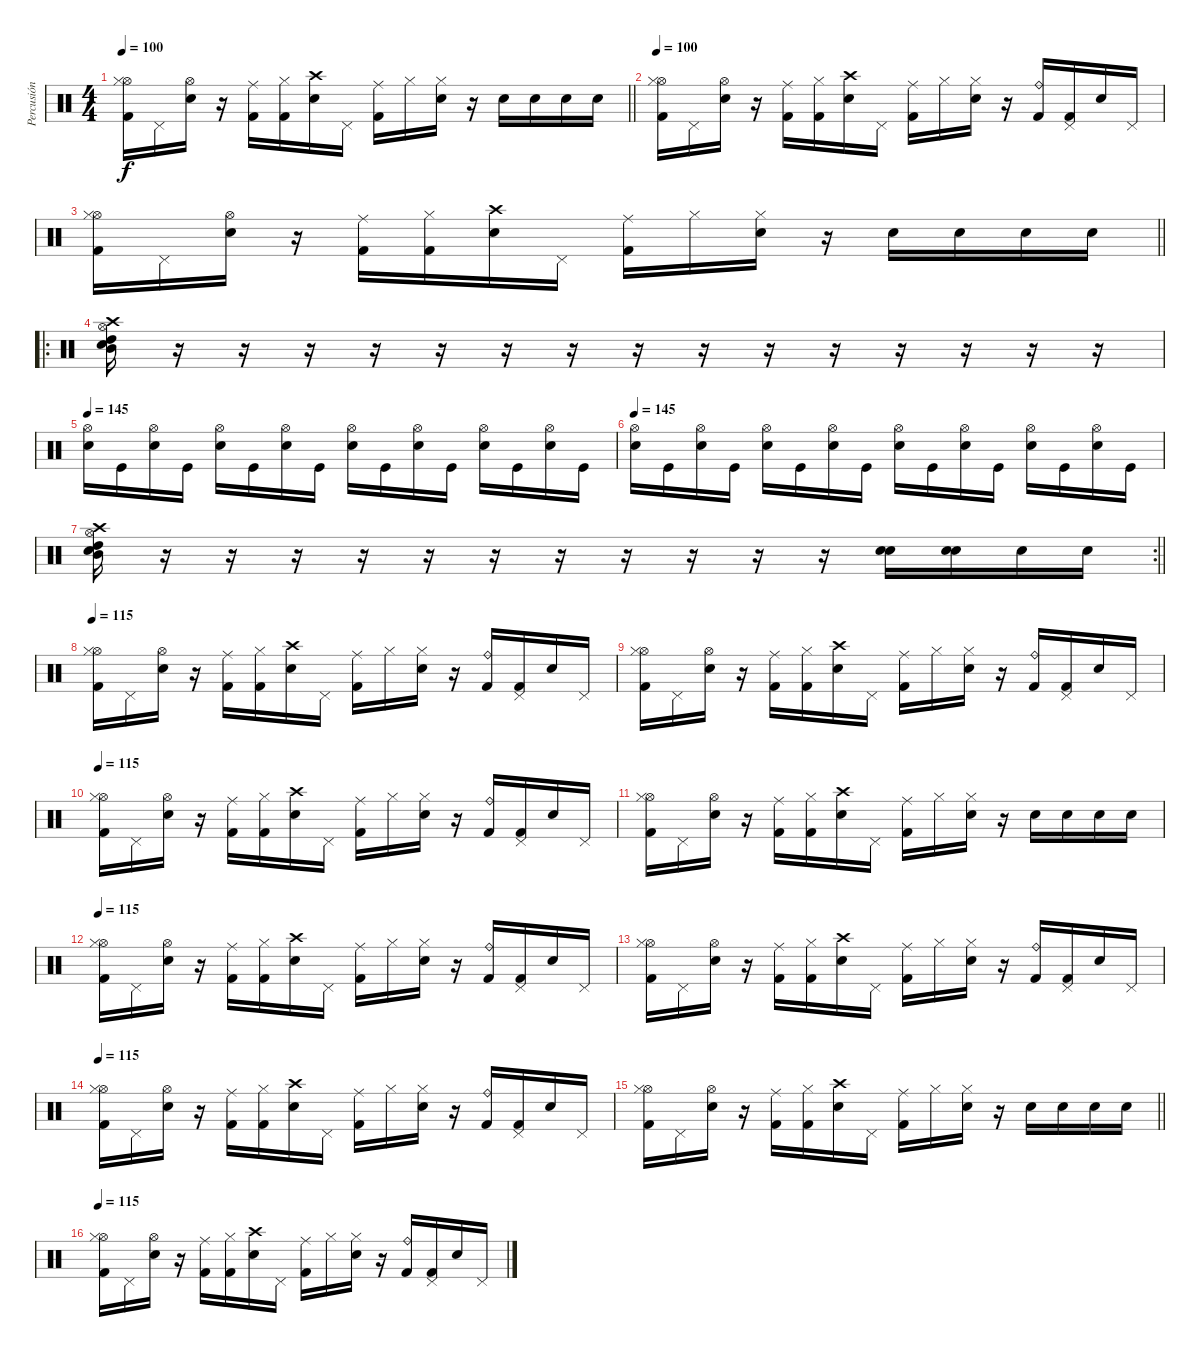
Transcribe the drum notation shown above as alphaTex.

\track ("Percusión" "Percusión") {instrument percussion}
\staff {score}
\articulation defaults
\ts (4 4)
\tempo 100
\clef neutral
\barLineRight lightlight
\ks c
("Kick (hit) 2" "Hi-Hat (open)" "Hi-Hat (closed)").16{dy f} "Pedal Hi-Hat (hit)".16 ("Hi-Hat (open)" "Electric Snare (hit)").16 r.16 ("Kick (hit) 2" "Ride (middle)").16 ("Kick (hit) 2" "Hi-Hat (closed)").16 ("Crash high (hit)" "Electric Snare (hit)").16 "Pedal Hi-Hat (hit)".16 ("Kick (hit) 2" "Ride (middle)").16 "Hi-Hat (closed)".16 ("Electric Snare (hit)" "Hi-Hat (closed)").16 r.16 "Electric Snare (hit)".16 "Electric Snare (hit)".16 "Electric Snare (hit)".16 "Electric Snare (hit)".16 |
\tempo 100
("Kick (hit) 2" "Hi-Hat (open)" "Hi-Hat (closed)").16 "Pedal Hi-Hat (hit)".16 ("Hi-Hat (open)" "Electric Snare (hit)").16 r.16 ("Kick (hit) 2" "Ride (middle)").16 ("Kick (hit) 2" "Hi-Hat (closed)").16 ("Crash high (hit)" "Electric Snare (hit)").16 "Pedal Hi-Hat (hit)".16 ("Kick (hit) 2" "Ride (middle)").16 "Hi-Hat (closed)".16 ("Electric Snare (hit)" "Hi-Hat (closed)").16 r.16 ("Kick (hit) 2" "Ride (bell)").16 ("Kick (hit) 2" "Pedal Hi-Hat (hit)").16 "Electric Snare (hit)".16 "Pedal Hi-Hat (hit)".16 |
\barLineRight lightlight
("Kick (hit) 2" "Hi-Hat (open)" "Hi-Hat (closed)").16 "Pedal Hi-Hat (hit)".16 ("Hi-Hat (open)" "Electric Snare (hit)").16 r.16 ("Kick (hit) 2" "Ride (middle)").16 ("Kick (hit) 2" "Hi-Hat (closed)").16 ("Crash high (hit)" "Electric Snare (hit)").16 "Pedal Hi-Hat (hit)".16 ("Kick (hit) 2" "Ride (middle)").16 "Hi-Hat (closed)".16 ("Electric Snare (hit)" "Hi-Hat (closed)").16 r.16 "Electric Snare (hit)".16 "Electric Snare (hit)".16 "Electric Snare (hit)".16 "Electric Snare (hit)".16 |
\ro
\section ("" "")
("Hi-Hat (open)" "Mid Tom (hit)" "High Tom (hit)" "Crash high (hit)" "Snare (hit) 2").16 r.16 r.16 r.16 r.16 r.16 r.16 r.16 r.16 r.16 r.16 r.16 r.16 r.16 r.16 r.16 |
\tempo 145
("Hi-Hat (open)" "Snare (hit) 2").16 "Kick (hit)".16 ("Hi-Hat (open)" "Snare (hit) 2").16 "Kick (hit)".16 ("Hi-Hat (open)" "Snare (hit) 2").16 "Kick (hit)".16 ("Hi-Hat (open)" "Snare (hit) 2").16 "Kick (hit)".16 ("Hi-Hat (open)" "Snare (hit) 2").16 "Kick (hit)".16 ("Hi-Hat (open)" "Snare (hit) 2").16 "Kick (hit)".16 ("Hi-Hat (open)" "Snare (hit) 2").16 "Kick (hit)".16 ("Hi-Hat (open)" "Snare (hit) 2").16 "Kick (hit)".16 |
\tempo 145
("Hi-Hat (open)" "Snare (hit) 2").16 "Kick (hit)".16 ("Hi-Hat (open)" "Snare (hit) 2").16 "Kick (hit)".16 ("Hi-Hat (open)" "Snare (hit) 2").16 "Kick (hit)".16 ("Hi-Hat (open)" "Snare (hit) 2").16 "Kick (hit)".16 ("Hi-Hat (open)" "Snare (hit) 2").16 "Kick (hit)".16 ("Hi-Hat (open)" "Snare (hit) 2").16 "Kick (hit)".16 ("Hi-Hat (open)" "Snare (hit) 2").16 "Kick (hit)".16 ("Hi-Hat (open)" "Snare (hit) 2").16 "Kick (hit)".16 |
\rc 2
\barLineRight lightlight
("Hi-Hat (open)" "Mid Tom (hit)" "High Tom (hit)" "Crash high (hit)" "Snare (hit) 2").16 r.16 r.16 r.16 r.16 r.16 r.16 r.16 r.16 r.16 r.16 r.16 ("Electric Snare (hit)" "Snare (hit)").16 ("Electric Snare (hit)" "Electric Snare (hit)").16 "Electric Snare (hit)".16 "Electric Snare (hit)".16 |
\section ("" "")
\tempo 115
("Kick (hit) 2" "Hi-Hat (open)" "Hi-Hat (closed)").16 "Pedal Hi-Hat (hit)".16 ("Hi-Hat (open)" "Electric Snare (hit)").16 r.16 ("Kick (hit) 2" "Ride (middle)").16 ("Kick (hit) 2" "Hi-Hat (closed)").16 ("Crash high (hit)" "Electric Snare (hit)").16 "Pedal Hi-Hat (hit)".16 ("Kick (hit) 2" "Ride (middle)").16 "Hi-Hat (closed)".16 ("Electric Snare (hit)" "Hi-Hat (closed)").16 r.16 ("Kick (hit) 2" "Ride (bell)").16 ("Kick (hit) 2" "Pedal Hi-Hat (hit)").16 "Electric Snare (hit)".16 "Pedal Hi-Hat (hit)".16 |
("Kick (hit) 2" "Hi-Hat (open)" "Hi-Hat (closed)").16 "Pedal Hi-Hat (hit)".16 ("Hi-Hat (open)" "Electric Snare (hit)").16 r.16 ("Kick (hit) 2" "Ride (middle)").16 ("Kick (hit) 2" "Hi-Hat (closed)").16 ("Crash high (hit)" "Electric Snare (hit)").16 "Pedal Hi-Hat (hit)".16 ("Kick (hit) 2" "Ride (middle)").16 "Hi-Hat (closed)".16 ("Electric Snare (hit)" "Hi-Hat (closed)").16 r.16 ("Kick (hit) 2" "Ride (bell)").16 ("Kick (hit) 2" "Pedal Hi-Hat (hit)").16 "Electric Snare (hit)".16 "Pedal Hi-Hat (hit)".16 |
\tempo 115
("Kick (hit) 2" "Hi-Hat (open)" "Hi-Hat (closed)").16 "Pedal Hi-Hat (hit)".16 ("Hi-Hat (open)" "Electric Snare (hit)").16 r.16 ("Kick (hit) 2" "Ride (middle)").16 ("Kick (hit) 2" "Hi-Hat (closed)").16 ("Crash high (hit)" "Electric Snare (hit)").16 "Pedal Hi-Hat (hit)".16 ("Kick (hit) 2" "Ride (middle)").16 "Hi-Hat (closed)".16 ("Electric Snare (hit)" "Hi-Hat (closed)").16 r.16 ("Kick (hit) 2" "Ride (bell)").16 ("Kick (hit) 2" "Pedal Hi-Hat (hit)").16 "Electric Snare (hit)".16 "Pedal Hi-Hat (hit)".16 |
("Kick (hit) 2" "Hi-Hat (open)" "Hi-Hat (closed)").16 "Pedal Hi-Hat (hit)".16 ("Hi-Hat (open)" "Electric Snare (hit)").16 r.16 ("Kick (hit) 2" "Ride (middle)").16 ("Kick (hit) 2" "Hi-Hat (closed)").16 ("Crash high (hit)" "Electric Snare (hit)").16 "Pedal Hi-Hat (hit)".16 ("Kick (hit) 2" "Ride (middle)").16 "Hi-Hat (closed)".16 ("Electric Snare (hit)" "Hi-Hat (closed)").16 r.16 "Electric Snare (hit)".16 "Electric Snare (hit)".16 "Electric Snare (hit)".16 "Electric Snare (hit)".16 |
\tempo 115
("Kick (hit) 2" "Hi-Hat (open)" "Hi-Hat (closed)").16 "Pedal Hi-Hat (hit)".16 ("Hi-Hat (open)" "Electric Snare (hit)").16 r.16 ("Kick (hit) 2" "Ride (middle)").16 ("Kick (hit) 2" "Hi-Hat (closed)").16 ("Crash high (hit)" "Electric Snare (hit)").16 "Pedal Hi-Hat (hit)".16 ("Kick (hit) 2" "Ride (middle)").16 "Hi-Hat (closed)".16 ("Electric Snare (hit)" "Hi-Hat (closed)").16 r.16 ("Kick (hit) 2" "Ride (bell)").16 ("Kick (hit) 2" "Pedal Hi-Hat (hit)").16 "Electric Snare (hit)".16 "Pedal Hi-Hat (hit)".16 |
("Kick (hit) 2" "Hi-Hat (open)" "Hi-Hat (closed)").16 "Pedal Hi-Hat (hit)".16 ("Hi-Hat (open)" "Electric Snare (hit)").16 r.16 ("Kick (hit) 2" "Ride (middle)").16 ("Kick (hit) 2" "Hi-Hat (closed)").16 ("Crash high (hit)" "Electric Snare (hit)").16 "Pedal Hi-Hat (hit)".16 ("Kick (hit) 2" "Ride (middle)").16 "Hi-Hat (closed)".16 ("Electric Snare (hit)" "Hi-Hat (closed)").16 r.16 ("Kick (hit) 2" "Ride (bell)").16 ("Kick (hit) 2" "Pedal Hi-Hat (hit)").16 "Electric Snare (hit)".16 "Pedal Hi-Hat (hit)".16 |
\tempo 115
("Kick (hit) 2" "Hi-Hat (open)" "Hi-Hat (closed)").16 "Pedal Hi-Hat (hit)".16 ("Hi-Hat (open)" "Electric Snare (hit)").16 r.16 ("Kick (hit) 2" "Ride (middle)").16 ("Kick (hit) 2" "Hi-Hat (closed)").16 ("Crash high (hit)" "Electric Snare (hit)").16 "Pedal Hi-Hat (hit)".16 ("Kick (hit) 2" "Ride (middle)").16 "Hi-Hat (closed)".16 ("Electric Snare (hit)" "Hi-Hat (closed)").16 r.16 ("Kick (hit) 2" "Ride (bell)").16 ("Kick (hit) 2" "Pedal Hi-Hat (hit)").16 "Electric Snare (hit)".16 "Pedal Hi-Hat (hit)".16 |
\barLineRight lightlight
("Kick (hit) 2" "Hi-Hat (open)" "Hi-Hat (closed)").16 "Pedal Hi-Hat (hit)".16 ("Hi-Hat (open)" "Electric Snare (hit)").16 r.16 ("Kick (hit) 2" "Ride (middle)").16 ("Kick (hit) 2" "Hi-Hat (closed)").16 ("Crash high (hit)" "Electric Snare (hit)").16 "Pedal Hi-Hat (hit)".16 ("Kick (hit) 2" "Ride (middle)").16 "Hi-Hat (closed)".16 ("Electric Snare (hit)" "Hi-Hat (closed)").16 r.16 "Electric Snare (hit)".16 "Electric Snare (hit)".16 "Electric Snare (hit)".16 "Electric Snare (hit)".16 |
\section ("" "")
\tempo 115
("Kick (hit) 2" "Hi-Hat (open)" "Hi-Hat (closed)").16 "Pedal Hi-Hat (hit)".16 ("Hi-Hat (open)" "Electric Snare (hit)").16 r.16 ("Kick (hit) 2" "Ride (middle)").16 ("Kick (hit) 2" "Hi-Hat (closed)").16 ("Crash high (hit)" "Electric Snare (hit)").16 "Pedal Hi-Hat (hit)".16 ("Kick (hit) 2" "Ride (middle)").16 "Hi-Hat (closed)".16 ("Electric Snare (hit)" "Hi-Hat (closed)").16 r.16 ("Kick (hit) 2" "Ride (bell)").16 ("Kick (hit) 2" "Pedal Hi-Hat (hit)").16 "Electric Snare (hit)".16 "Pedal Hi-Hat (hit)".16
